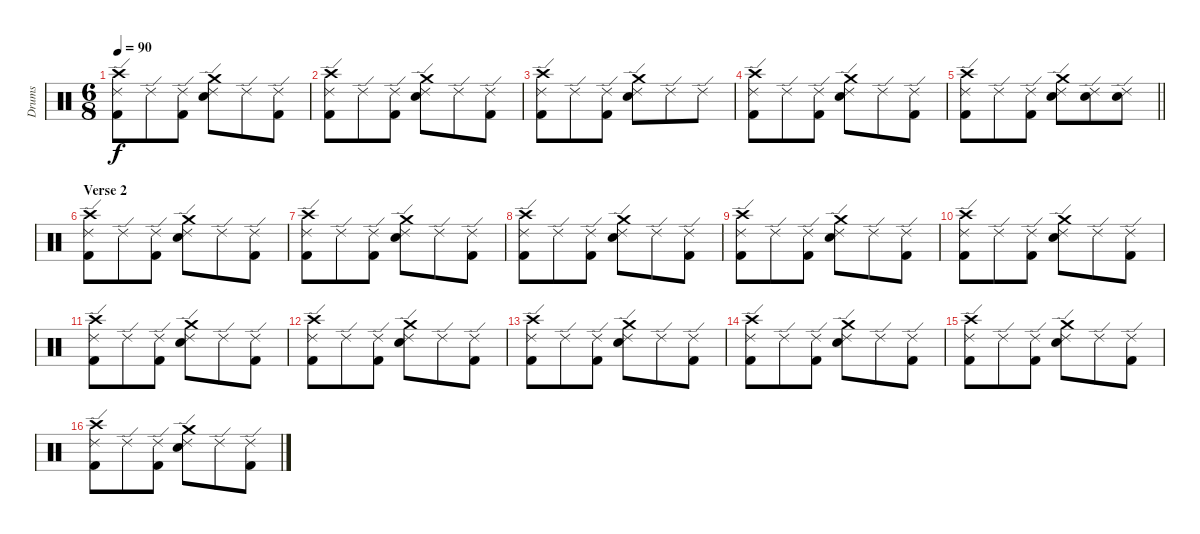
\track ("Drums" "Drums") {instrument percussion}
\staff {score}
\articulation defaults
\ts (6 8)
\tempo 90
\clef neutral
\ks c
("Ride (edge) 2" "Kick (hit) 2" "Crash high (hit)").8{dy f} "Ride (edge) 2".8 ("Ride (edge) 2" "Kick (hit) 2").8 ("Ride (edge) 2" "Snare (hit) 2" "Crash medium (hit)").8 "Ride (edge) 2".8 ("Ride (edge) 2" "Kick (hit) 2").8 |
("Ride (edge) 2" "Kick (hit) 2" "Crash high (hit)").8 "Ride (edge) 2".8 ("Ride (edge) 2" "Kick (hit) 2").8 ("Ride (edge) 2" "Snare (hit) 2" "Crash medium (hit)").8 "Ride (edge) 2".8 ("Ride (edge) 2" "Kick (hit) 2").8 |
("Ride (edge) 2" "Kick (hit) 2" "Crash high (hit)").8 "Ride (edge) 2".8 ("Ride (edge) 2" "Kick (hit) 2").8 ("Ride (edge) 2" "Snare (hit) 2" "Crash medium (hit)").8 "Ride (edge) 2".8 "Ride (edge) 2".8 |
("Ride (edge) 2" "Kick (hit) 2" "Crash high (hit)").8 "Ride (edge) 2".8 ("Ride (edge) 2" "Kick (hit) 2").8 ("Ride (edge) 2" "Snare (hit) 2" "Crash medium (hit)").8 "Ride (edge) 2".8 ("Ride (edge) 2" "Kick (hit) 2").8 |
\barLineRight lightlight
("Ride (edge) 2" "Kick (hit) 2" "Crash high (hit)").8 "Ride (edge) 2".8 ("Ride (edge) 2" "Kick (hit) 2").8 ("Ride (edge) 2" "Snare (hit) 2" "Crash medium (hit)").8 ("Ride (edge) 2" "Snare (hit) 2").8 ("Ride (edge) 2" "Snare (hit) 2").8 |
\section ("" "Verse 2")
("Ride (edge) 2" "Kick (hit) 2" "Crash high (hit)").8 "Ride (edge) 2".8 ("Ride (edge) 2" "Kick (hit) 2").8 ("Ride (edge) 2" "Snare (hit) 2" "Crash medium (hit)").8 "Ride (edge) 2".8 ("Ride (edge) 2" "Kick (hit) 2").8 |
("Ride (edge) 2" "Kick (hit) 2" "Crash high (hit)").8 "Ride (edge) 2".8 ("Ride (edge) 2" "Kick (hit) 2").8 ("Ride (edge) 2" "Snare (hit) 2" "Crash medium (hit)").8 "Ride (edge) 2".8 ("Ride (edge) 2" "Kick (hit) 2").8 |
("Ride (edge) 2" "Kick (hit) 2" "Crash high (hit)").8 "Ride (edge) 2".8 ("Ride (edge) 2" "Kick (hit) 2").8 ("Ride (edge) 2" "Snare (hit) 2" "Crash medium (hit)").8 "Ride (edge) 2".8 ("Ride (edge) 2" "Kick (hit) 2").8 |
("Ride (edge) 2" "Kick (hit) 2" "Crash high (hit)").8 "Ride (edge) 2".8 ("Ride (edge) 2" "Kick (hit) 2").8 ("Ride (edge) 2" "Snare (hit) 2" "Crash medium (hit)").8 "Ride (edge) 2".8 ("Ride (edge) 2" "Kick (hit) 2").8 |
("Ride (edge) 2" "Kick (hit) 2" "Crash high (hit)").8 "Ride (edge) 2".8 ("Ride (edge) 2" "Kick (hit) 2").8 ("Ride (edge) 2" "Snare (hit) 2" "Crash medium (hit)").8 "Ride (edge) 2".8 ("Ride (edge) 2" "Kick (hit) 2").8 |
("Ride (edge) 2" "Kick (hit) 2" "Crash high (hit)").8 "Ride (edge) 2".8 ("Ride (edge) 2" "Kick (hit) 2").8 ("Ride (edge) 2" "Snare (hit) 2" "Crash medium (hit)").8 "Ride (edge) 2".8 ("Ride (edge) 2" "Kick (hit) 2").8 |
("Ride (edge) 2" "Kick (hit) 2" "Crash high (hit)").8 "Ride (edge) 2".8 ("Ride (edge) 2" "Kick (hit) 2").8 ("Ride (edge) 2" "Snare (hit) 2" "Crash medium (hit)").8 "Ride (edge) 2".8 ("Ride (edge) 2" "Kick (hit) 2").8 |
("Ride (edge) 2" "Kick (hit) 2" "Crash high (hit)").8 "Ride (edge) 2".8 ("Ride (edge) 2" "Kick (hit) 2").8 ("Ride (edge) 2" "Snare (hit) 2" "Crash medium (hit)").8 "Ride (edge) 2".8 ("Ride (edge) 2" "Kick (hit) 2").8 |
("Ride (edge) 2" "Kick (hit) 2" "Crash high (hit)").8 "Ride (edge) 2".8 ("Ride (edge) 2" "Kick (hit) 2").8 ("Ride (edge) 2" "Snare (hit) 2" "Crash medium (hit)").8 "Ride (edge) 2".8 ("Ride (edge) 2" "Kick (hit) 2").8 |
("Ride (edge) 2" "Kick (hit) 2" "Crash high (hit)").8 "Ride (edge) 2".8 ("Ride (edge) 2" "Kick (hit) 2").8 ("Ride (edge) 2" "Snare (hit) 2" "Crash medium (hit)").8 "Ride (edge) 2".8 ("Ride (edge) 2" "Kick (hit) 2").8 |
("Ride (edge) 2" "Kick (hit) 2" "Crash high (hit)").8 "Ride (edge) 2".8 ("Ride (edge) 2" "Kick (hit) 2").8 ("Ride (edge) 2" "Snare (hit) 2" "Crash medium (hit)").8 "Ride (edge) 2".8 ("Ride (edge) 2" "Kick (hit) 2").8
